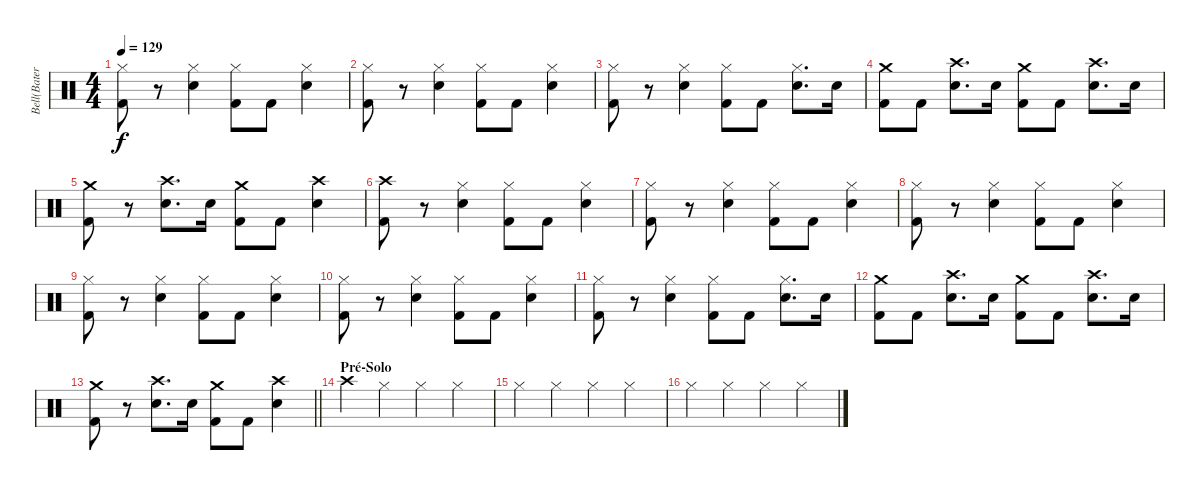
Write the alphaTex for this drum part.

\track ("Bell(Bateria)" "Bell(Bater") {instrument percussion}
\staff {score}
\articulation defaults
\ts (4 4)
\tempo 129
\clef neutral
\ks c
("Hi-Hat (closed)" "Kick (hit) 2").8{dy f} r.8 ("Hi-Hat (closed)" "Electric Snare (hit)").4 ("Hi-Hat (closed)" "Kick (hit) 2").8 "Kick (hit) 2".8 ("Hi-Hat (closed)" "Electric Snare (hit)").4 |
("Hi-Hat (closed)" "Kick (hit) 2").8 r.8 ("Hi-Hat (closed)" "Electric Snare (hit)").4 ("Hi-Hat (closed)" "Kick (hit) 2").8 "Kick (hit) 2".8 ("Hi-Hat (closed)" "Electric Snare (hit)").4 |
("Hi-Hat (closed)" "Kick (hit) 2").8 r.8 ("Hi-Hat (closed)" "Electric Snare (hit)").4 ("Hi-Hat (closed)" "Kick (hit) 2").8 "Kick (hit) 2".8 ("Hi-Hat (closed)" "Electric Snare (hit)").8{d} "Electric Snare (hit)".16 |
("Crash medium (hit)" "Kick (hit) 2").8 "Kick (hit) 2".8 ("Crash high (hit)" "Electric Snare (hit)").8{d} "Electric Snare (hit)".16 ("Crash medium (hit)" "Kick (hit) 2").8 "Kick (hit) 2".8 ("Crash high (hit)" "Electric Snare (hit)").8{d} "Electric Snare (hit)".16 |
("Crash medium (hit)" "Kick (hit) 2").8 r.8 ("Crash high (hit)" "Electric Snare (hit)").8{d} "Electric Snare (hit)".16 ("Crash medium (hit)" "Kick (hit) 2").8 "Kick (hit) 2".8 ("Crash high (hit)" "Electric Snare (hit)").4 |
("Crash high (hit)" "Kick (hit) 2").8 r.8 ("Hi-Hat (closed)" "Electric Snare (hit)").4 ("Hi-Hat (closed)" "Kick (hit) 2").8 "Kick (hit) 2".8 ("Hi-Hat (closed)" "Electric Snare (hit)").4 |
("Hi-Hat (closed)" "Kick (hit) 2").8 r.8 ("Hi-Hat (closed)" "Electric Snare (hit)").4 ("Hi-Hat (closed)" "Kick (hit) 2").8 "Kick (hit) 2".8 ("Hi-Hat (closed)" "Electric Snare (hit)").4 |
("Hi-Hat (closed)" "Kick (hit) 2").8 r.8 ("Hi-Hat (closed)" "Electric Snare (hit)").4 ("Hi-Hat (closed)" "Kick (hit) 2").8 "Kick (hit) 2".8 ("Hi-Hat (closed)" "Electric Snare (hit)").4 |
("Hi-Hat (closed)" "Kick (hit) 2").8 r.8 ("Hi-Hat (closed)" "Electric Snare (hit)").4 ("Hi-Hat (closed)" "Kick (hit) 2").8 "Kick (hit) 2".8 ("Hi-Hat (closed)" "Electric Snare (hit)").4 |
("Hi-Hat (closed)" "Kick (hit) 2").8 r.8 ("Hi-Hat (closed)" "Electric Snare (hit)").4 ("Hi-Hat (closed)" "Kick (hit) 2").8 "Kick (hit) 2".8 ("Hi-Hat (closed)" "Electric Snare (hit)").4 |
("Hi-Hat (closed)" "Kick (hit) 2").8 r.8 ("Hi-Hat (closed)" "Electric Snare (hit)").4 ("Hi-Hat (closed)" "Kick (hit) 2").8 "Kick (hit) 2".8 ("Hi-Hat (closed)" "Electric Snare (hit)").8{d} "Electric Snare (hit)".16 |
("Crash medium (hit)" "Kick (hit) 2").8 "Kick (hit) 2".8 ("Crash high (hit)" "Electric Snare (hit)").8{d} "Electric Snare (hit)".16 ("Crash medium (hit)" "Kick (hit) 2").8 "Kick (hit) 2".8 ("Crash high (hit)" "Electric Snare (hit)").8{d} "Electric Snare (hit)".16 |
\barLineRight lightlight
("Crash medium (hit)" "Kick (hit) 2").8 r.8 ("Crash high (hit)" "Electric Snare (hit)").8{d} "Electric Snare (hit)".16 ("Crash medium (hit)" "Kick (hit) 2").8 "Kick (hit) 2".8 ("Crash high (hit)" "Electric Snare (hit)").4 |
\section ("" "Pré-Solo")
"Crash high (hit)".4 "Hi-Hat (closed)".4 "Hi-Hat (closed)".4 "Hi-Hat (closed)".4 |
"Hi-Hat (closed)".4 "Hi-Hat (closed)".4 "Hi-Hat (closed)".4 "Hi-Hat (closed)".4 |
"Hi-Hat (closed)".4 "Hi-Hat (closed)".4 "Hi-Hat (closed)".4 "Hi-Hat (closed)".4
